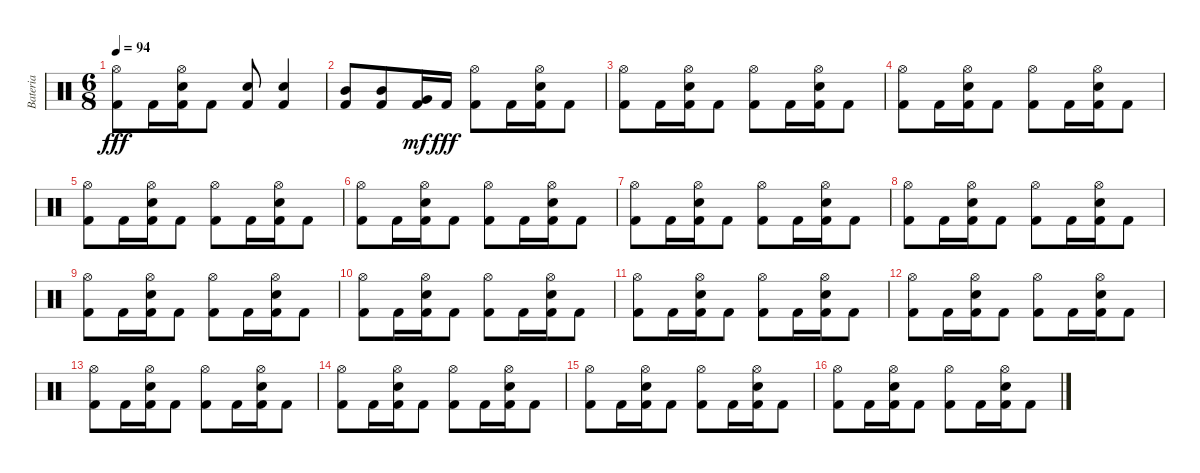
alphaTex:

\track ("Bateria" "Bateria") {instrument percussion}
\staff {score}
\articulation defaults
\ts (6 8)
\tempo 94
\clef neutral
\ks c
("Hi-Hat (open)" "Kick (hit) 2").8{dy fff} "Kick (hit) 2".16 ("Hi-Hat (open)" "Electric Snare (hit)" "Kick (hit) 2").16 "Kick (hit) 2".8 ("Electric Snare (hit)" "Kick (hit) 2").8 ("Electric Snare (hit)" "Kick (hit) 2").4 |
("Mid Tom (hit)" "Kick (hit) 2").8 ("Mid Tom (hit)" "Kick (hit) 2").8 ("Very Low Tom (hit)" "Kick (hit) 2").16{dy mf} "Kick (hit) 2".16{dy fff} ("Hi-Hat (open)" "Kick (hit) 2").8 "Kick (hit) 2".16 ("Hi-Hat (open)" "Electric Snare (hit)" "Kick (hit) 2").16 "Kick (hit) 2".8 |
("Hi-Hat (open)" "Kick (hit) 2").8 "Kick (hit) 2".16 ("Hi-Hat (open)" "Electric Snare (hit)" "Kick (hit) 2").16 "Kick (hit) 2".8 ("Hi-Hat (open)" "Kick (hit) 2").8 "Kick (hit) 2".16 ("Hi-Hat (open)" "Electric Snare (hit)" "Kick (hit) 2").16 "Kick (hit) 2".8 |
("Hi-Hat (open)" "Kick (hit) 2").8 "Kick (hit) 2".16 ("Hi-Hat (open)" "Electric Snare (hit)" "Kick (hit) 2").16 "Kick (hit) 2".8 ("Hi-Hat (open)" "Kick (hit) 2").8 "Kick (hit) 2".16 ("Hi-Hat (open)" "Electric Snare (hit)" "Kick (hit) 2").16 "Kick (hit) 2".8 |
("Hi-Hat (open)" "Kick (hit) 2").8 "Kick (hit) 2".16 ("Hi-Hat (open)" "Electric Snare (hit)" "Kick (hit) 2").16 "Kick (hit) 2".8 ("Hi-Hat (open)" "Kick (hit) 2").8 "Kick (hit) 2".16 ("Hi-Hat (open)" "Electric Snare (hit)" "Kick (hit) 2").16 "Kick (hit) 2".8 |
("Hi-Hat (open)" "Kick (hit) 2").8 "Kick (hit) 2".16 ("Hi-Hat (open)" "Electric Snare (hit)" "Kick (hit) 2").16 "Kick (hit) 2".8 ("Hi-Hat (open)" "Kick (hit) 2").8 "Kick (hit) 2".16 ("Hi-Hat (open)" "Electric Snare (hit)" "Kick (hit) 2").16 "Kick (hit) 2".8 |
("Hi-Hat (open)" "Kick (hit) 2").8 "Kick (hit) 2".16 ("Hi-Hat (open)" "Electric Snare (hit)" "Kick (hit) 2").16 "Kick (hit) 2".8 ("Hi-Hat (open)" "Kick (hit) 2").8 "Kick (hit) 2".16 ("Hi-Hat (open)" "Electric Snare (hit)" "Kick (hit) 2").16 "Kick (hit) 2".8 |
("Hi-Hat (open)" "Kick (hit) 2").8 "Kick (hit) 2".16 ("Hi-Hat (open)" "Electric Snare (hit)" "Kick (hit) 2").16 "Kick (hit) 2".8 ("Hi-Hat (open)" "Kick (hit) 2").8 "Kick (hit) 2".16 ("Hi-Hat (open)" "Electric Snare (hit)" "Kick (hit) 2").16 "Kick (hit) 2".8 |
("Hi-Hat (open)" "Kick (hit) 2").8 "Kick (hit) 2".16 ("Hi-Hat (open)" "Electric Snare (hit)" "Kick (hit) 2").16 "Kick (hit) 2".8 ("Hi-Hat (open)" "Kick (hit) 2").8 "Kick (hit) 2".16 ("Hi-Hat (open)" "Electric Snare (hit)" "Kick (hit) 2").16 "Kick (hit) 2".8 |
("Hi-Hat (open)" "Kick (hit) 2").8 "Kick (hit) 2".16 ("Hi-Hat (open)" "Electric Snare (hit)" "Kick (hit) 2").16 "Kick (hit) 2".8 ("Hi-Hat (open)" "Kick (hit) 2").8 "Kick (hit) 2".16 ("Hi-Hat (open)" "Electric Snare (hit)" "Kick (hit) 2").16 "Kick (hit) 2".8 |
("Hi-Hat (open)" "Kick (hit) 2").8 "Kick (hit) 2".16 ("Hi-Hat (open)" "Electric Snare (hit)" "Kick (hit) 2").16 "Kick (hit) 2".8 ("Hi-Hat (open)" "Kick (hit) 2").8 "Kick (hit) 2".16 ("Hi-Hat (open)" "Electric Snare (hit)" "Kick (hit) 2").16 "Kick (hit) 2".8 |
("Hi-Hat (open)" "Kick (hit) 2").8 "Kick (hit) 2".16 ("Hi-Hat (open)" "Electric Snare (hit)" "Kick (hit) 2").16 "Kick (hit) 2".8 ("Hi-Hat (open)" "Kick (hit) 2").8 "Kick (hit) 2".16 ("Hi-Hat (open)" "Electric Snare (hit)" "Kick (hit) 2").16 "Kick (hit) 2".8 |
("Hi-Hat (open)" "Kick (hit) 2").8 "Kick (hit) 2".16 ("Hi-Hat (open)" "Electric Snare (hit)" "Kick (hit) 2").16 "Kick (hit) 2".8 ("Hi-Hat (open)" "Kick (hit) 2").8 "Kick (hit) 2".16 ("Hi-Hat (open)" "Electric Snare (hit)" "Kick (hit) 2").16 "Kick (hit) 2".8 |
("Hi-Hat (open)" "Kick (hit) 2").8 "Kick (hit) 2".16 ("Hi-Hat (open)" "Electric Snare (hit)" "Kick (hit) 2").16 "Kick (hit) 2".8 ("Hi-Hat (open)" "Kick (hit) 2").8 "Kick (hit) 2".16 ("Hi-Hat (open)" "Electric Snare (hit)" "Kick (hit) 2").16 "Kick (hit) 2".8 |
("Hi-Hat (open)" "Kick (hit) 2").8 "Kick (hit) 2".16 ("Hi-Hat (open)" "Electric Snare (hit)" "Kick (hit) 2").16 "Kick (hit) 2".8 ("Hi-Hat (open)" "Kick (hit) 2").8 "Kick (hit) 2".16 ("Hi-Hat (open)" "Electric Snare (hit)" "Kick (hit) 2").16 "Kick (hit) 2".8 |
("Hi-Hat (open)" "Kick (hit) 2").8 "Kick (hit) 2".16 ("Hi-Hat (open)" "Electric Snare (hit)" "Kick (hit) 2").16 "Kick (hit) 2".8 ("Hi-Hat (open)" "Kick (hit) 2").8 "Kick (hit) 2".16 ("Hi-Hat (open)" "Electric Snare (hit)" "Kick (hit) 2").16 "Kick (hit) 2".8
